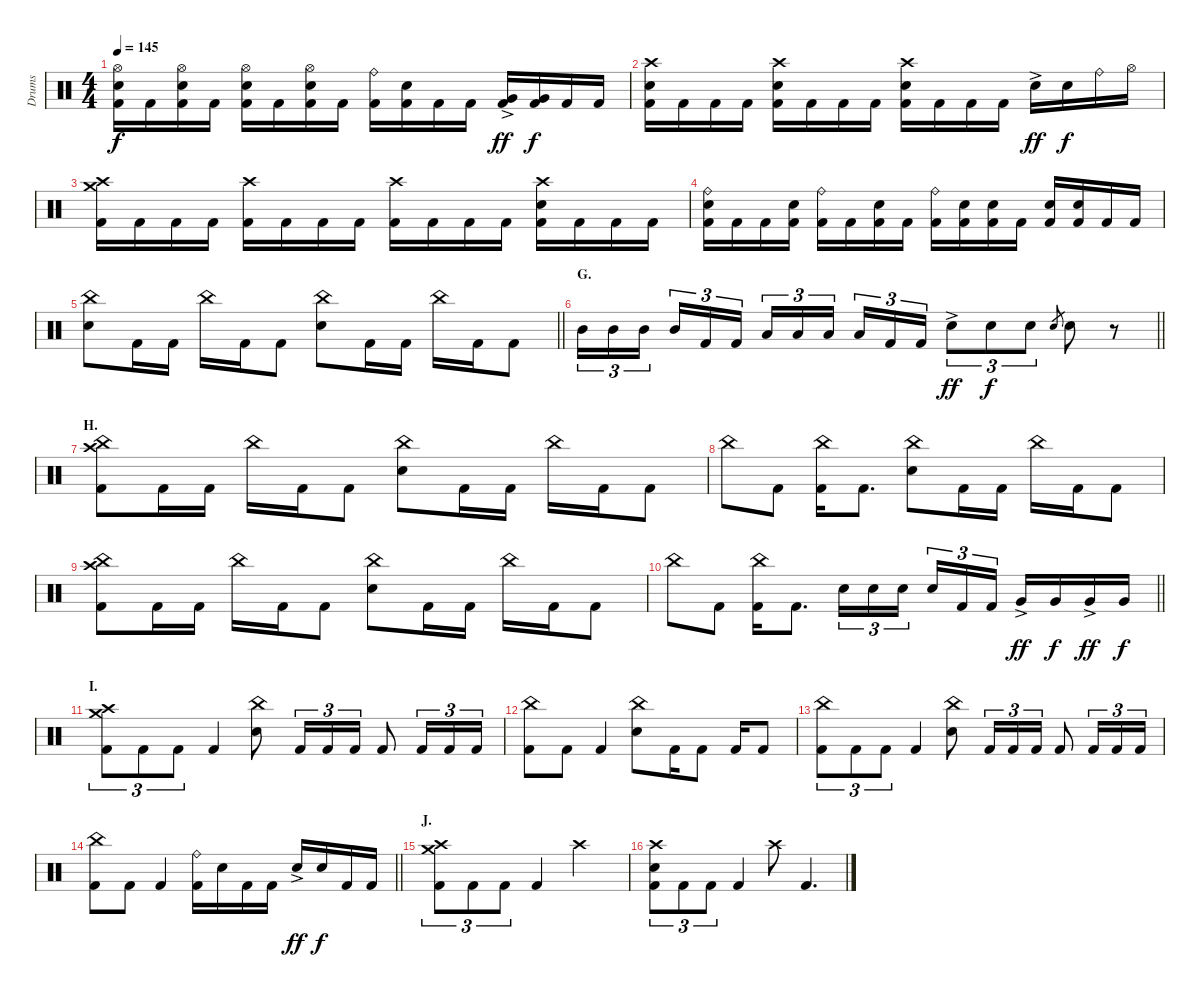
\track ("Drums" "Drums") {instrument percussion}
\staff {score}
\articulation defaults
\ts (4 4)
\tempo 145
\clef neutral
\ks c
("Hi-Hat (open)" "Electric Snare (hit)" "Kick (hit) 2").16{dy f} "Kick (hit) 2".16 ("Hi-Hat (open)" "Electric Snare (hit)" "Kick (hit) 2").16 "Kick (hit) 2".16 ("Hi-Hat (open)" "Electric Snare (hit)" "Kick (hit) 2").16 "Kick (hit) 2".16 ("Hi-Hat (open)" "Electric Snare (hit)" "Kick (hit) 2").16 "Kick (hit) 2".16 ("Ride (bell)" "Kick (hit) 2").16 ("Electric Snare (hit)" "Kick (hit) 2").16 "Kick (hit) 2".16 "Kick (hit) 2".16 ("Very Low Tom (hit)"{ac} "Kick (hit) 2").16{dy ff} ("Very Low Tom (hit)" "Kick (hit) 2").16{dy f} "Kick (hit) 2".16 "Kick (hit) 2".16 |
("Crash high (hit)" "Electric Snare (hit)" "Kick (hit) 2").16 "Kick (hit) 2".16 "Kick (hit) 2".16 "Kick (hit) 2".16 ("Crash high (hit)" "Electric Snare (hit)" "Kick (hit) 2").16 "Kick (hit) 2".16 "Kick (hit) 2".16 "Kick (hit) 2".16 ("Crash high (hit)" "Electric Snare (hit)" "Kick (hit) 2").16 "Kick (hit) 2".16 "Kick (hit) 2".16 "Kick (hit) 2".16 "Electric Snare (hit)"{ac}.16{dy ff} "Electric Snare (hit)".16{dy f} "Ride (bell)".16 "Hi-Hat (open)".16 |
("Crash medium (hit)" "Crash high (hit)" "Kick (hit) 2").16 "Kick (hit) 2".16 "Kick (hit) 2".16 "Kick (hit) 2".16 ("Crash high (hit)" "Kick (hit) 2").16 "Kick (hit) 2".16 "Kick (hit) 2".16 "Kick (hit) 2".16 ("Crash high (hit)" "Kick (hit) 2").16 "Kick (hit) 2".16 "Kick (hit) 2".16 "Kick (hit) 2".16 ("Crash high (hit)" "Electric Snare (hit)" "Kick (hit) 2").16 "Kick (hit) 2".16 "Kick (hit) 2".16 "Kick (hit) 2".16 |
("Ride (bell)" "Electric Snare (hit)" "Kick (hit) 2").16 "Kick (hit) 2".16 "Kick (hit) 2".16 ("Electric Snare (hit)" "Kick (hit) 2").16 ("Ride (bell)" "Kick (hit) 2").16 "Kick (hit) 2".16 ("Electric Snare (hit)" "Kick (hit) 2").16 "Kick (hit) 2".16 ("Ride (bell)" "Kick (hit) 2").16 ("Electric Snare (hit)" "Kick (hit) 2").16 ("Electric Snare (hit)" "Kick (hit) 2").16 "Kick (hit) 2".16 ("Electric Snare (hit)" "Kick (hit) 2").16 ("Electric Snare (hit)" "Kick (hit) 2").16 "Kick (hit) 2".16 "Kick (hit) 2".16 |
\barLineRight lightlight
("China (hit)" "Electric Snare (hit)").8 "Kick (hit) 2".16 "Kick (hit) 2".16 "China (hit)".16 "Kick (hit) 2".16 "Kick (hit) 2".8 ("China (hit)" "Electric Snare (hit)").8 "Kick (hit) 2".16 "Kick (hit) 2".16 "China (hit)".16 "Kick (hit) 2".16 "Kick (hit) 2".8 |
\section ("" "G.")
\barLineRight lightlight "Mid Tom (hit)".16{tu (3 2)} "Mid Tom (hit)".16{tu (3 2)} "Mid Tom (hit)".16{tu (3 2) beam splitsecondary} "Mid Tom (hit)".16{tu (3 2)} "Kick (hit) 2".16{tu (3 2)} "Kick (hit) 2".16{tu (3 2)} "Low Tom (hit)".16{tu (3 2)} "Low Tom (hit)".16{tu (3 2)} "Low Tom (hit)".16{tu (3 2) beam splitsecondary} "Low Tom (hit)".16{tu (3 2)} "Kick (hit) 2".16{tu (3 2)} "Kick (hit) 2".16{tu (3 2)} "Electric Snare (hit)"{ac}.8{tu (3 2) dy ff} "Electric Snare (hit)".8{tu (3 2) dy f} "Electric Snare (hit)".8{tu (3 2)} "Electric Snare (hit)".8{gr} "Electric Snare (hit)".8
r.8 |
\section ("" "H.")
("China (hit)" "Crash high (hit)" "Kick (hit) 2").8 "Kick (hit) 2".16 "Kick (hit) 2".16 "China (hit)".16 "Kick (hit) 2".16 "Kick (hit) 2".8 ("China (hit)" "Electric Snare (hit)").8 "Kick (hit) 2".16 "Kick (hit) 2".16 "China (hit)".16 "Kick (hit) 2".16 "Kick (hit) 2".8 |
"China (hit)".8 "Kick (hit) 2".8 ("China (hit)" "Kick (hit) 2").16 "Kick (hit) 2".8{d} ("China (hit)" "Electric Snare (hit)").8 "Kick (hit) 2".16 "Kick (hit) 2".16 "China (hit)".16 "Kick (hit) 2".16 "Kick (hit) 2".8 |
("China (hit)" "Crash high (hit)" "Kick (hit) 2").8 "Kick (hit) 2".16 "Kick (hit) 2".16 "China (hit)".16 "Kick (hit) 2".16 "Kick (hit) 2".8 ("China (hit)" "Electric Snare (hit)").8 "Kick (hit) 2".16 "Kick (hit) 2".16 "China (hit)".16 "Kick (hit) 2".16 "Kick (hit) 2".8 |
\barLineRight lightlight "China (hit)".8 "Kick (hit) 2".8
("China (hit)" "Kick (hit) 2").16 "Kick (hit) 2".8{d} "Electric Snare (hit)".16{tu (3 2)} "Electric Snare (hit)".16{tu (3 2)} "Electric Snare (hit)".16{tu (3 2) beam splitsecondary} "Electric Snare (hit)".16{tu (3 2)} "Kick (hit) 2".16{tu (3 2)} "Kick (hit) 2".16{tu (3 2)} "Very Low Tom (hit)"{ac}.16{dy ff} "Very Low Tom (hit)".16{dy f} "Very Low Tom (hit)"{ac}.16{dy ff} "Very Low Tom (hit)".16{dy f} |
\section ("" "I.")
("Crash medium (hit)" "Crash high (hit)" "Kick (hit) 2").8{tu (3 2)} "Kick (hit) 2".8{tu (3 2)} "Kick (hit) 2".8{tu (3 2)} "Kick (hit) 2".4 ("China (hit)" "Electric Snare (hit)").8 "Kick (hit) 2".16{tu (3 2)} "Kick (hit) 2".16{tu (3 2)} "Kick (hit) 2".16{tu (3 2)} "Kick (hit) 2".8 "Kick (hit) 2".16{tu (3 2)} "Kick (hit) 2".16{tu (3 2)} "Kick (hit) 2".16{tu (3 2)} |
("China (hit)" "Kick (hit) 2").8 "Kick (hit) 2".8 "Kick (hit) 2".4 ("China (hit)" "Electric Snare (hit)").8 "Kick (hit) 2".16 "Kick (hit) 2".8 "Kick (hit) 2".16 "Kick (hit) 2".8 |
("China (hit)" "Kick (hit) 2").8{tu (3 2)} "Kick (hit) 2".8{tu (3 2)} "Kick (hit) 2".8{tu (3 2)} "Kick (hit) 2".4 ("China (hit)" "Electric Snare (hit)").8 "Kick (hit) 2".16{tu (3 2)} "Kick (hit) 2".16{tu (3 2)} "Kick (hit) 2".16{tu (3 2)} "Kick (hit) 2".8 "Kick (hit) 2".16{tu (3 2)} "Kick (hit) 2".16{tu (3 2)} "Kick (hit) 2".16{tu (3 2)} |
\barLineRight lightlight
("China (hit)" "Kick (hit) 2").8 "Kick (hit) 2".8 "Kick (hit) 2".4 ("Ride (bell)" "Kick (hit) 2").16 "Electric Snare (hit)".16 "Kick (hit) 2".16 "Kick (hit) 2".16 "Electric Snare (hit)"{ac}.16{dy ff} "Electric Snare (hit)".16{dy f} "Kick (hit) 2".16 "Kick (hit) 2".16 |
\section ("" "J.")
("Crash medium (hit)" "Crash high (hit)" "Kick (hit) 2").8{tu (3 2)} "Kick (hit) 2".8{tu (3 2)} "Kick (hit) 2".8{tu (3 2)} "Kick (hit) 2".4 "Crash high (hit)".2 |
("Crash high (hit)" "Electric Snare (hit)" "Kick (hit) 2").8{tu (3 2)} "Kick (hit) 2".8{tu (3 2)} "Kick (hit) 2".8{tu (3 2)} "Kick (hit) 2".4 "Crash high (hit)".8 "Kick (hit) 2".4{d}
